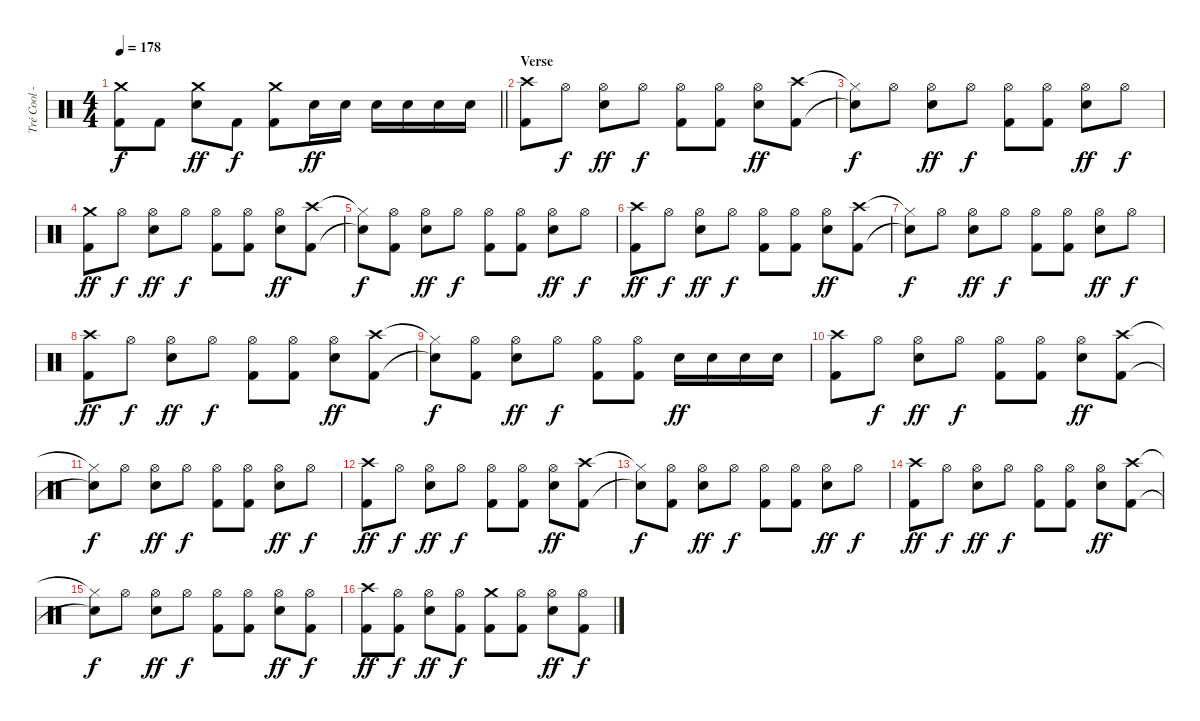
\track ("Tré Cool - Drums" "Tré Cool -") {instrument percussion}
\staff {score}
\articulation defaults
\ts (4 4)
\tempo 178
\clef neutral
\barLineRight lightlight
\ks c
("Crash medium (hit)" "Kick (hit) 2").8{dy f} "Kick (hit) 2".8 ("Crash medium (hit)" "Electric Snare (hit)").8{dy ff} "Kick (hit) 2".8{dy f} ("Crash medium (hit)" "Kick (hit) 2").8 "Electric Snare (hit)".16{dy ff} "Electric Snare (hit)".16 "Electric Snare (hit)".16 "Electric Snare (hit)".16 "Electric Snare (hit)".16 "Electric Snare (hit)".16 |
\section ("" "Verse")
("Crash high (hit)" "Kick (hit) 2").8 "Hi-Hat (open)".8{dy f} ("Hi-Hat (open)" "Electric Snare (hit)").8{dy ff} "Hi-Hat (open)".8{dy f} ("Hi-Hat (open)" "Kick (hit) 2").8 ("Hi-Hat (open)" "Kick (hit) 2").8 ("Hi-Hat (open)" "Electric Snare (hit)").8{dy ff} ("Crash high (hit)" "Kick (hit) 2").8 |
("Hi-Hat (closed)"{t} "Snare (hit)"{t}).8{dy f} "Hi-Hat (open)".8 ("Hi-Hat (open)" "Electric Snare (hit)").8{dy ff} "Hi-Hat (open)".8{dy f} ("Hi-Hat (open)" "Kick (hit) 2").8 ("Hi-Hat (open)" "Kick (hit) 2").8 ("Hi-Hat (open)" "Electric Snare (hit)").8{dy ff} "Hi-Hat (open)".8{dy f} |
("Crash medium (hit)" "Kick (hit) 2").8{dy ff} "Hi-Hat (open)".8{dy f} ("Hi-Hat (open)" "Electric Snare (hit)").8{dy ff} "Hi-Hat (open)".8{dy f} ("Hi-Hat (open)" "Kick (hit) 2").8 ("Hi-Hat (open)" "Kick (hit) 2").8 ("Hi-Hat (open)" "Electric Snare (hit)").8{dy ff} ("Crash high (hit)" "Kick (hit) 2").8 |
("Hi-Hat (closed)"{t} "Snare (hit)"{t}).8{dy f} ("Hi-Hat (open)" "Kick (hit) 2").8 ("Hi-Hat (open)" "Electric Snare (hit)").8{dy ff} "Hi-Hat (open)".8{dy f} ("Hi-Hat (open)" "Kick (hit) 2").8 ("Hi-Hat (open)" "Kick (hit) 2").8 ("Hi-Hat (open)" "Electric Snare (hit)").8{dy ff} "Hi-Hat (open)".8{dy f} |
("Crash high (hit)" "Kick (hit) 2").8{dy ff} "Hi-Hat (open)".8{dy f} ("Hi-Hat (open)" "Electric Snare (hit)").8{dy ff} "Hi-Hat (open)".8{dy f} ("Hi-Hat (open)" "Kick (hit) 2").8 ("Hi-Hat (open)" "Kick (hit) 2").8 ("Hi-Hat (open)" "Electric Snare (hit)").8{dy ff} ("Crash high (hit)" "Kick (hit) 2").8 |
("Hi-Hat (closed)"{t} "Snare (hit)"{t}).8{dy f} "Hi-Hat (open)".8 ("Hi-Hat (open)" "Electric Snare (hit)").8{dy ff} "Hi-Hat (open)".8{dy f} ("Hi-Hat (open)" "Kick (hit) 2").8 ("Hi-Hat (open)" "Kick (hit) 2").8 ("Hi-Hat (open)" "Electric Snare (hit)").8{dy ff} "Hi-Hat (open)".8{dy f} |
("Crash high (hit)" "Kick (hit) 2").8{dy ff} "Hi-Hat (open)".8{dy f} ("Hi-Hat (open)" "Electric Snare (hit)").8{dy ff} "Hi-Hat (open)".8{dy f} ("Hi-Hat (open)" "Kick (hit) 2").8 ("Hi-Hat (open)" "Kick (hit) 2").8 ("Hi-Hat (open)" "Electric Snare (hit)").8{dy ff} ("Crash high (hit)" "Kick (hit) 2").8 |
("Hi-Hat (closed)"{t} "Snare (hit)"{t}).8{dy f} ("Hi-Hat (open)" "Kick (hit) 2").8 ("Hi-Hat (open)" "Electric Snare (hit)").8{dy ff} "Hi-Hat (open)".8{dy f} ("Hi-Hat (open)" "Kick (hit) 2").8 ("Hi-Hat (open)" "Kick (hit) 2").8 "Electric Snare (hit)".16{dy ff} "Electric Snare (hit)".16 "Electric Snare (hit)".16 "Electric Snare (hit)".16 |
("Crash high (hit)" "Kick (hit) 2").8 "Hi-Hat (open)".8{dy f} ("Hi-Hat (open)" "Electric Snare (hit)").8{dy ff} "Hi-Hat (open)".8{dy f} ("Hi-Hat (open)" "Kick (hit) 2").8 ("Hi-Hat (open)" "Kick (hit) 2").8 ("Hi-Hat (open)" "Electric Snare (hit)").8{dy ff} ("Crash high (hit)" "Kick (hit) 2").8 |
("Hi-Hat (closed)"{t} "Snare (hit)"{t}).8{dy f} "Hi-Hat (open)".8 ("Hi-Hat (open)" "Electric Snare (hit)").8{dy ff} "Hi-Hat (open)".8{dy f} ("Hi-Hat (open)" "Kick (hit) 2").8 ("Hi-Hat (open)" "Kick (hit) 2").8 ("Hi-Hat (open)" "Electric Snare (hit)").8{dy ff} "Hi-Hat (open)".8{dy f} |
("Crash high (hit)" "Kick (hit) 2").8{dy ff} "Hi-Hat (open)".8{dy f} ("Hi-Hat (open)" "Electric Snare (hit)").8{dy ff} "Hi-Hat (open)".8{dy f} ("Hi-Hat (open)" "Kick (hit) 2").8 ("Hi-Hat (open)" "Kick (hit) 2").8 ("Hi-Hat (open)" "Electric Snare (hit)").8{dy ff} ("Crash high (hit)" "Kick (hit) 2").8 |
("Hi-Hat (closed)"{t} "Snare (hit)"{t}).8{dy f} ("Hi-Hat (open)" "Kick (hit) 2").8 ("Hi-Hat (open)" "Electric Snare (hit)").8{dy ff} "Hi-Hat (open)".8{dy f} ("Hi-Hat (open)" "Kick (hit) 2").8 ("Hi-Hat (open)" "Kick (hit) 2").8 ("Hi-Hat (open)" "Electric Snare (hit)").8{dy ff} "Hi-Hat (open)".8{dy f} |
("Crash high (hit)" "Kick (hit) 2").8{dy ff} "Hi-Hat (open)".8{dy f} ("Hi-Hat (open)" "Electric Snare (hit)").8{dy ff} "Hi-Hat (open)".8{dy f} ("Hi-Hat (open)" "Kick (hit) 2").8 ("Hi-Hat (open)" "Kick (hit) 2").8 ("Hi-Hat (open)" "Electric Snare (hit)").8{dy ff} ("Crash high (hit)" "Kick (hit) 2").8 |
("Hi-Hat (closed)"{t} "Snare (hit)"{t}).8{dy f} "Hi-Hat (open)".8 ("Hi-Hat (open)" "Electric Snare (hit)").8{dy ff} "Hi-Hat (open)".8{dy f} ("Hi-Hat (open)" "Kick (hit) 2").8 ("Hi-Hat (open)" "Kick (hit) 2").8 ("Hi-Hat (open)" "Electric Snare (hit)").8{dy ff} ("Hi-Hat (open)" "Kick (hit) 2").8{dy f} |
("Crash high (hit)" "Kick (hit) 2").8{dy ff} ("Hi-Hat (open)" "Kick (hit) 2").8{dy f} ("Hi-Hat (open)" "Electric Snare (hit)").8{dy ff} ("Hi-Hat (open)" "Kick (hit) 2").8{dy f} ("Crash medium (hit)" "Kick (hit) 2").8 ("Hi-Hat (open)" "Kick (hit) 2").8 ("Hi-Hat (open)" "Electric Snare (hit)").8{dy ff} ("Hi-Hat (open)" "Kick (hit) 2").8{dy f}
